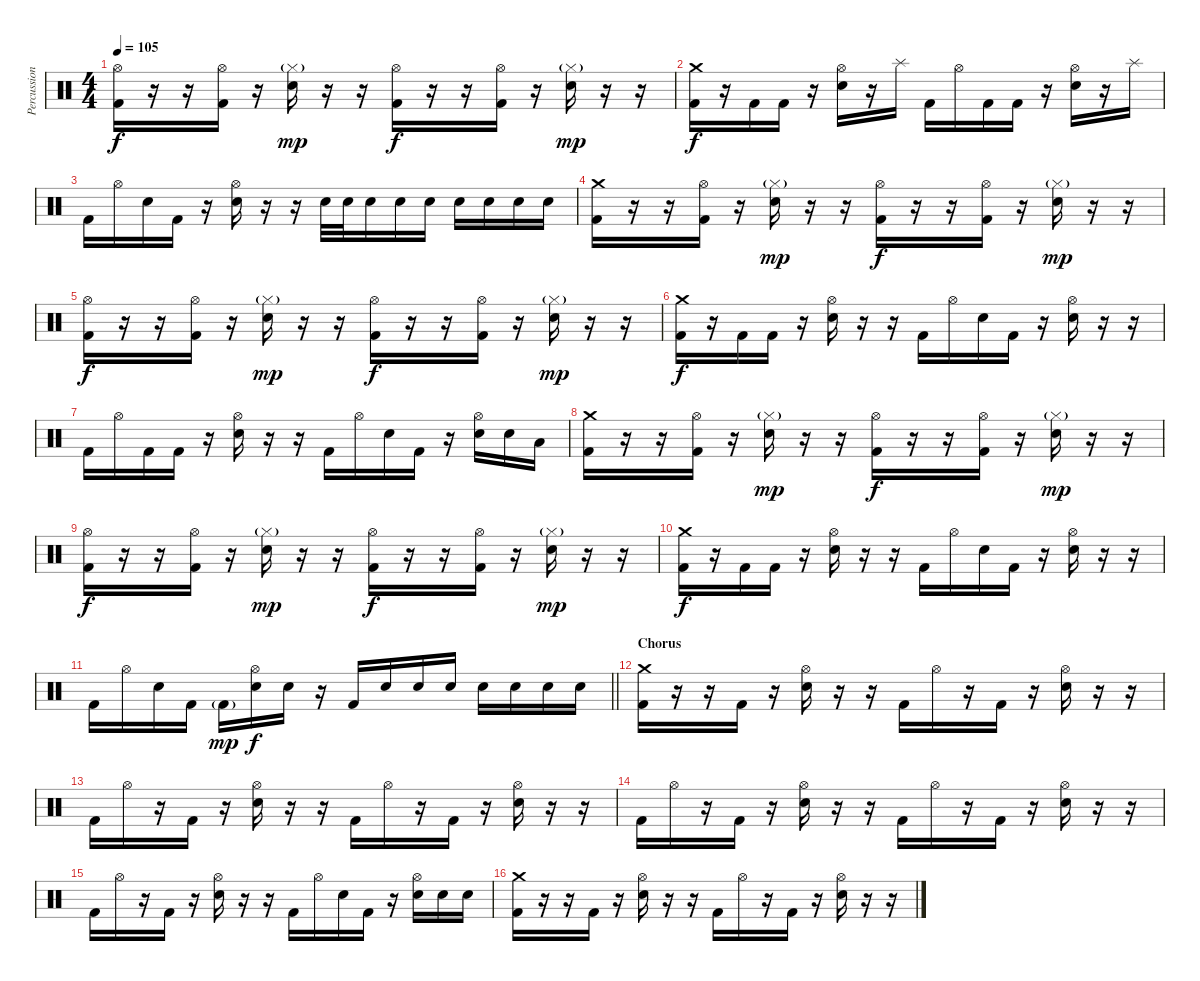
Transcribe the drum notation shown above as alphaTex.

\track ("Percussion" "Percussion") {instrument percussion}
\staff {score}
\articulation defaults
\ts (4 4)
\tempo 105
\clef neutral
\ks c
("Hi-Hat (open)" "Kick (hit) 2").16{dy f} r.16 r.16 ("Hi-Hat (open)" "Kick (hit) 2").16 r.16 ("Hi-Hat (closed)"{g} "Electric Snare (hit)").16{dy mp} r.16 r.16 ("Hi-Hat (open)" "Kick (hit) 2").16{dy f} r.16 r.16 ("Hi-Hat (open)" "Kick (hit) 2").16 r.16 ("Hi-Hat (closed)"{g} "Electric Snare (hit)").16{dy mp} r.16 r.16 |
("Crash medium (hit)" "Kick (hit) 2").16{dy f} r.16 "Kick (hit) 2".16 "Kick (hit) 2".16 r.16 ("Hi-Hat (open)" "Electric Snare (hit)").16 r.16 "Splash (hit)".16 "Kick (hit) 2".16 "Hi-Hat (open)".16 "Kick (hit) 2".16 "Kick (hit) 2".16 r.16 ("Hi-Hat (open)" "Electric Snare (hit)").16 r.16 "Splash (hit)".16 |
"Kick (hit) 2".16 "Hi-Hat (open)".16 "Electric Snare (hit)".16 "Kick (hit) 2".16 r.16 ("Hi-Hat (open)" "Electric Snare (hit)").16 r.16 r.16 "Electric Snare (hit)".32 "Electric Snare (hit)".32 "Electric Snare (hit)".16 "Electric Snare (hit)".16 "Electric Snare (hit)".16 "Electric Snare (hit)".16 "Electric Snare (hit)".16 "Electric Snare (hit)".16 "Electric Snare (hit)".16 |
("Crash medium (hit)" "Kick (hit) 2").16 r.16 r.16 ("Hi-Hat (open)" "Kick (hit) 2").16 r.16 ("Hi-Hat (closed)"{g} "Electric Snare (hit)").16{dy mp} r.16 r.16 ("Hi-Hat (open)" "Kick (hit) 2").16{dy f} r.16 r.16 ("Hi-Hat (open)" "Kick (hit) 2").16 r.16 ("Hi-Hat (closed)"{g} "Electric Snare (hit)").16{dy mp} r.16 r.16 |
("Hi-Hat (open)" "Kick (hit) 2").16{dy f} r.16 r.16 ("Hi-Hat (open)" "Kick (hit) 2").16 r.16 ("Hi-Hat (closed)"{g} "Electric Snare (hit)").16{dy mp} r.16 r.16 ("Hi-Hat (open)" "Kick (hit) 2").16{dy f} r.16 r.16 ("Hi-Hat (open)" "Kick (hit) 2").16 r.16 ("Hi-Hat (closed)"{g} "Electric Snare (hit)").16{dy mp} r.16 r.16 |
("Crash medium (hit)" "Kick (hit) 2").16{dy f} r.16 "Kick (hit) 2".16 "Kick (hit) 2".16 r.16 ("Hi-Hat (open)" "Electric Snare (hit)").16 r.16 r.16 "Kick (hit) 2".16 "Hi-Hat (open)".16 "Electric Snare (hit)".16 "Kick (hit) 2".16 r.16 ("Hi-Hat (open)" "Electric Snare (hit)").16 r.16 r.16 |
"Kick (hit) 2".16 "Hi-Hat (open)".16 "Kick (hit) 2".16 "Kick (hit) 2".16 r.16 ("Hi-Hat (open)" "Electric Snare (hit)").16 r.16 r.16 "Kick (hit) 2".16 "Hi-Hat (open)".16 "Electric Snare (hit)".16 "Kick (hit) 2".16 r.16 ("Hi-Hat (open)" "Electric Snare (hit)").16 "Electric Snare (hit)".16 "Low Tom (hit)".16 |
("Crash medium (hit)" "Kick (hit) 2").16 r.16 r.16 ("Hi-Hat (open)" "Kick (hit) 2").16 r.16 ("Hi-Hat (closed)"{g} "Electric Snare (hit)").16{dy mp} r.16 r.16 ("Hi-Hat (open)" "Kick (hit) 2").16{dy f} r.16 r.16 ("Hi-Hat (open)" "Kick (hit) 2").16 r.16 ("Hi-Hat (closed)"{g} "Electric Snare (hit)").16{dy mp} r.16 r.16 |
("Hi-Hat (open)" "Kick (hit) 2").16{dy f} r.16 r.16 ("Hi-Hat (open)" "Kick (hit) 2").16 r.16 ("Hi-Hat (closed)"{g} "Electric Snare (hit)").16{dy mp} r.16 r.16 ("Hi-Hat (open)" "Kick (hit) 2").16{dy f} r.16 r.16 ("Hi-Hat (open)" "Kick (hit) 2").16 r.16 ("Hi-Hat (closed)"{g} "Electric Snare (hit)").16{dy mp} r.16 r.16 |
("Crash medium (hit)" "Kick (hit) 2").16{dy f} r.16 "Kick (hit) 2".16 "Kick (hit) 2".16 r.16 ("Hi-Hat (open)" "Electric Snare (hit)").16 r.16 r.16 "Kick (hit) 2".16 "Hi-Hat (open)".16 "Electric Snare (hit)".16 "Kick (hit) 2".16 r.16 ("Hi-Hat (open)" "Electric Snare (hit)").16 r.16 r.16 |
\barLineRight lightlight "Kick (hit) 2".16 "Hi-Hat (open)".16 "Electric Snare (hit)".16 "Kick (hit) 2".16 "Kick (hit) 2"{g}.16{dy mp}
("Hi-Hat (open)" "Electric Snare (hit)").16{dy f} "Electric Snare (hit)".16 r.16 "Kick (hit) 2".16 "Electric Snare (hit)".16 "Electric Snare (hit)".16 "Electric Snare (hit)".16 "Electric Snare (hit)".16 "Electric Snare (hit)".16 "Electric Snare (hit)".16 "Electric Snare (hit)".16 |
\section ("" "Chorus")
("Crash medium (hit)" "Kick (hit) 2").16 r.16 r.16 "Kick (hit) 2".16 r.16 ("Hi-Hat (open)" "Electric Snare (hit)").16 r.16 r.16 "Kick (hit) 2".16 "Hi-Hat (open)".16 r.16 "Kick (hit) 2".16 r.16 ("Hi-Hat (open)" "Electric Snare (hit)").16 r.16 r.16 |
"Kick (hit) 2".16 "Hi-Hat (open)".16 r.16 "Kick (hit) 2".16 r.16 ("Hi-Hat (open)" "Electric Snare (hit)").16 r.16 r.16 "Kick (hit) 2".16 "Hi-Hat (open)".16 r.16 "Kick (hit) 2".16 r.16 ("Hi-Hat (open)" "Electric Snare (hit)").16 r.16 r.16 |
"Kick (hit) 2".16 "Hi-Hat (open)".16 r.16 "Kick (hit) 2".16 r.16 ("Hi-Hat (open)" "Electric Snare (hit)").16 r.16 r.16 "Kick (hit) 2".16 "Hi-Hat (open)".16 r.16 "Kick (hit) 2".16 r.16 ("Hi-Hat (open)" "Electric Snare (hit)").16 r.16 r.16 |
"Kick (hit) 2".16 "Hi-Hat (open)".16 r.16 "Kick (hit) 2".16 r.16 ("Hi-Hat (open)" "Electric Snare (hit)").16 r.16 r.16 "Kick (hit) 2".16 "Hi-Hat (open)".16 "Electric Snare (hit)".16 "Kick (hit) 2".16 r.16 ("Hi-Hat (open)" "Electric Snare (hit)").16 "Electric Snare (hit)".16 "Electric Snare (hit)".16 |
("Crash medium (hit)" "Kick (hit) 2").16 r.16 r.16 "Kick (hit) 2".16 r.16 ("Hi-Hat (open)" "Electric Snare (hit)").16 r.16 r.16 "Kick (hit) 2".16 "Hi-Hat (open)".16 r.16 "Kick (hit) 2".16 r.16 ("Hi-Hat (open)" "Electric Snare (hit)").16 r.16 r.16
